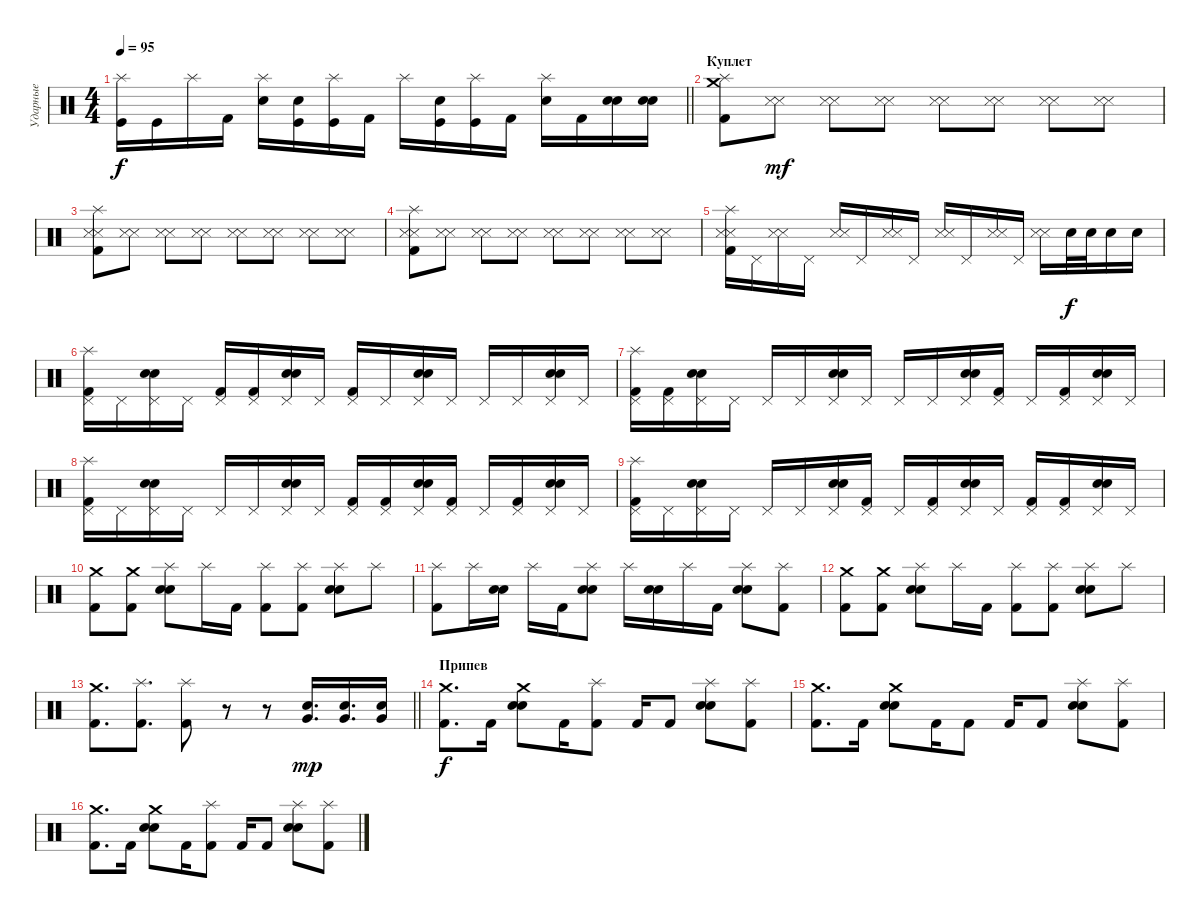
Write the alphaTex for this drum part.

\track ("Ударные" "Ударные") {instrument percussion}
\staff {score}
\articulation defaults
\ts (4 4)
\tempo 95
\clef neutral
\barLineRight lightlight
\ks c
("Splash (hit)" "Kick (hit)").16{dy f} "Kick (hit)".16 "Splash (hit)".16 "Kick (hit) 2".16 ("Splash (hit)" "Electric Snare (hit)").16 ("Electric Snare (hit)" "Kick (hit)").16 ("Splash (hit)" "Kick (hit)").16 "Kick (hit) 2".16 "Splash (hit)".16 ("Electric Snare (hit)" "Kick (hit)").16 ("Splash (hit)" "Kick (hit)").16 "Kick (hit) 2".16 ("Splash (hit)" "Electric Snare (hit)").16 "Kick (hit) 2".16 ("Electric Snare (hit)" "Snare (hit) 2").16 ("Electric Snare (hit)" "Snare (hit) 2").16 |
\section ("" "Куплет")
("Crash medium (hit)" "Splash (hit)" "Kick (hit) 2").8 ("Snare (side stick) 3" "Metronome (hit)").8{dy mf} ("Snare (side stick) 3" "Metronome (hit)").8 ("Snare (side stick) 3" "Metronome (hit)").8 ("Snare (side stick) 3" "Metronome (hit)").8 ("Snare (side stick) 3" "Metronome (hit)").8 ("Snare (side stick) 3" "Metronome (hit)").8 ("Snare (side stick) 3" "Metronome (hit)").8 |
("Snare (side stick) 3" "Metronome (hit)" "Splash (hit)" "Kick (hit) 2").8 ("Snare (side stick) 3" "Metronome (hit)").8 ("Snare (side stick) 3" "Metronome (hit)").8 ("Snare (side stick) 3" "Metronome (hit)").8 ("Snare (side stick) 3" "Metronome (hit)").8 ("Snare (side stick) 3" "Metronome (hit)").8 ("Snare (side stick) 3" "Metronome (hit)").8 ("Snare (side stick) 3" "Metronome (hit)").8 |
("Snare (side stick) 3" "Metronome (hit)" "Splash (hit)" "Kick (hit) 2").8 ("Snare (side stick) 3" "Metronome (hit)").8 ("Snare (side stick) 3" "Metronome (hit)").8 ("Snare (side stick) 3" "Metronome (hit)").8 ("Snare (side stick) 3" "Metronome (hit)").8 ("Snare (side stick) 3" "Metronome (hit)").8 ("Snare (side stick) 3" "Metronome (hit)").8 ("Snare (side stick) 3" "Metronome (hit)").8 |
("Snare (side stick) 3" "Metronome (hit)" "Splash (hit)" "Kick (hit) 2").16 "Pedal Hi-Hat (hit)".16 ("Snare (side stick) 3" "Metronome (hit)").16 "Pedal Hi-Hat (hit)".16 ("Snare (side stick) 3" "Metronome (hit)").16 "Pedal Hi-Hat (hit)".16 ("Snare (side stick) 3" "Metronome (hit)").16 "Pedal Hi-Hat (hit)".16 ("Snare (side stick) 3" "Metronome (hit)").16 "Pedal Hi-Hat (hit)".16 ("Snare (side stick) 3" "Metronome (hit)").16 "Pedal Hi-Hat (hit)".16 ("Snare (side stick) 3" "Metronome (hit)").16 "Electric Snare (hit)".32{dy f} "Electric Snare (hit)".32 "Electric Snare (hit)".16 "Electric Snare (hit)".16 |
("Pedal Hi-Hat (hit)" "Splash (hit)" "Kick (hit) 2").16 "Pedal Hi-Hat (hit)".16 ("Pedal Hi-Hat (hit)" "Electric Snare (hit)" "Snare (hit) 2").16 "Pedal Hi-Hat (hit)".16 ("Pedal Hi-Hat (hit)" "Kick (hit) 2").16 ("Pedal Hi-Hat (hit)" "Kick (hit) 2").16 ("Pedal Hi-Hat (hit)" "Electric Snare (hit)" "Snare (hit) 2").16 "Pedal Hi-Hat (hit)".16 ("Pedal Hi-Hat (hit)" "Kick (hit) 2").16 "Pedal Hi-Hat (hit)".16 ("Pedal Hi-Hat (hit)" "Electric Snare (hit)" "Snare (hit) 2").16 "Pedal Hi-Hat (hit)".16 "Pedal Hi-Hat (hit)".16 "Pedal Hi-Hat (hit)".16 ("Pedal Hi-Hat (hit)" "Electric Snare (hit)" "Snare (hit) 2").16 "Pedal Hi-Hat (hit)".16 |
("Pedal Hi-Hat (hit)" "Splash (hit)" "Kick (hit) 2").16 ("Pedal Hi-Hat (hit)" "Kick (hit) 2").16 ("Pedal Hi-Hat (hit)" "Electric Snare (hit)" "Snare (hit) 2").16 "Pedal Hi-Hat (hit)".16 "Pedal Hi-Hat (hit)".16 "Pedal Hi-Hat (hit)".16 ("Pedal Hi-Hat (hit)" "Electric Snare (hit)" "Snare (hit) 2").16 "Pedal Hi-Hat (hit)".16 "Pedal Hi-Hat (hit)".16 "Pedal Hi-Hat (hit)".16 ("Pedal Hi-Hat (hit)" "Electric Snare (hit)" "Snare (hit) 2").16 ("Pedal Hi-Hat (hit)" "Kick (hit) 2").16 "Pedal Hi-Hat (hit)".16 ("Pedal Hi-Hat (hit)" "Kick (hit) 2").16 ("Pedal Hi-Hat (hit)" "Electric Snare (hit)" "Snare (hit) 2").16 "Pedal Hi-Hat (hit)".16 |
("Pedal Hi-Hat (hit)" "Splash (hit)" "Kick (hit) 2").16 "Pedal Hi-Hat (hit)".16 ("Pedal Hi-Hat (hit)" "Electric Snare (hit)" "Snare (hit) 2").16 "Pedal Hi-Hat (hit)".16 "Pedal Hi-Hat (hit)".16 "Pedal Hi-Hat (hit)".16 ("Pedal Hi-Hat (hit)" "Electric Snare (hit)" "Snare (hit) 2").16 "Pedal Hi-Hat (hit)".16 ("Pedal Hi-Hat (hit)" "Kick (hit) 2").16 ("Pedal Hi-Hat (hit)" "Kick (hit) 2").16 ("Pedal Hi-Hat (hit)" "Electric Snare (hit)" "Snare (hit) 2").16 ("Pedal Hi-Hat (hit)" "Kick (hit) 2").16 "Pedal Hi-Hat (hit)".16 ("Pedal Hi-Hat (hit)" "Kick (hit) 2").16 ("Pedal Hi-Hat (hit)" "Electric Snare (hit)" "Snare (hit) 2").16 "Pedal Hi-Hat (hit)".16 |
("Pedal Hi-Hat (hit)" "Splash (hit)" "Kick (hit) 2").16 "Pedal Hi-Hat (hit)".16 ("Pedal Hi-Hat (hit)" "Electric Snare (hit)" "Snare (hit) 2").16 "Pedal Hi-Hat (hit)".16 "Pedal Hi-Hat (hit)".16 "Pedal Hi-Hat (hit)".16 ("Pedal Hi-Hat (hit)" "Electric Snare (hit)" "Snare (hit) 2").16 ("Pedal Hi-Hat (hit)" "Kick (hit) 2").16 "Pedal Hi-Hat (hit)".16 ("Pedal Hi-Hat (hit)" "Kick (hit) 2").16 ("Pedal Hi-Hat (hit)" "Electric Snare (hit)" "Snare (hit) 2").16 "Pedal Hi-Hat (hit)".16 ("Pedal Hi-Hat (hit)" "Kick (hit) 2").16 ("Pedal Hi-Hat (hit)" "Kick (hit) 2").16 ("Pedal Hi-Hat (hit)" "Electric Snare (hit)" "Snare (hit) 2").16 "Pedal Hi-Hat (hit)".16 |
("Crash medium (hit)" "Kick (hit) 2").8 ("Crash medium (hit)" "Kick (hit) 2").8 ("Splash (hit)" "Electric Snare (hit)" "Snare (hit) 2").8 "Splash (hit)".16 "Kick (hit) 2".16 ("Splash (hit)" "Kick (hit) 2").8 ("Splash (hit)" "Kick (hit) 2").8 ("Splash (hit)" "Electric Snare (hit)" "Snare (hit) 2").8 "Splash (hit)".8 |
("Splash (hit)" "Kick (hit) 2").8 "Splash (hit)".16 ("Electric Snare (hit)" "Snare (hit) 2").16 "Splash (hit)".16 "Kick (hit) 2".16 ("Splash (hit)" "Electric Snare (hit)" "Snare (hit) 2").8 "Splash (hit)".16 ("Electric Snare (hit)" "Snare (hit) 2").16 "Splash (hit)".16 "Kick (hit) 2".16 ("Splash (hit)" "Electric Snare (hit)" "Snare (hit) 2").8 ("Splash (hit)" "Kick (hit) 2").8 |
("Crash medium (hit)" "Kick (hit) 2").8 ("Crash medium (hit)" "Kick (hit) 2").8 ("Splash (hit)" "Electric Snare (hit)" "Snare (hit) 2").8 "Splash (hit)".16 "Kick (hit) 2".16 ("Splash (hit)" "Kick (hit) 2").8 ("Splash (hit)" "Kick (hit) 2").8 ("Splash (hit)" "Electric Snare (hit)" "Snare (hit) 2").8 "Splash (hit)".8 |
\barLineRight lightlight
("Crash medium (hit)" "Kick (hit) 2").8{d} ("Splash (hit)" "Kick (hit) 2").8{d} ("Splash (hit)" "Kick (hit) 2").8 r.8 r.8 ("Very Low Tom (hit)" "Electric Snare (hit)").16{d dy mp} ("Very Low Tom (hit)" "Electric Snare (hit)").16{d} ("Very Low Tom (hit)" "Electric Snare (hit)").16 |
\section ("" "Припев")
("Crash medium (hit)" "Kick (hit) 2").8{d dy f} "Kick (hit) 2".16 ("Crash medium (hit)" "Electric Snare (hit)" "Snare (hit) 2").8 "Kick (hit) 2".16 ("Splash (hit)" "Kick (hit) 2").8 "Kick (hit) 2".16 "Kick (hit) 2".8 ("Splash (hit)" "Electric Snare (hit)" "Snare (hit) 2").8 ("Splash (hit)" "Kick (hit) 2").8 |
("Crash medium (hit)" "Kick (hit) 2").8{d} "Kick (hit) 2".16 ("Crash medium (hit)" "Electric Snare (hit)" "Snare (hit) 2").8 "Kick (hit) 2".16 "Kick (hit) 2".8 "Kick (hit) 2".16 "Kick (hit) 2".8 ("Splash (hit)" "Electric Snare (hit)" "Snare (hit) 2").8 ("Splash (hit)" "Kick (hit) 2").8 |
("Crash medium (hit)" "Kick (hit) 2").8{d} "Kick (hit) 2".16 ("Crash medium (hit)" "Electric Snare (hit)" "Snare (hit) 2").8 "Kick (hit) 2".16 ("Splash (hit)" "Kick (hit) 2").8 "Kick (hit) 2".16 "Kick (hit) 2".8 ("Splash (hit)" "Electric Snare (hit)" "Snare (hit) 2").8 ("Splash (hit)" "Kick (hit) 2").8
